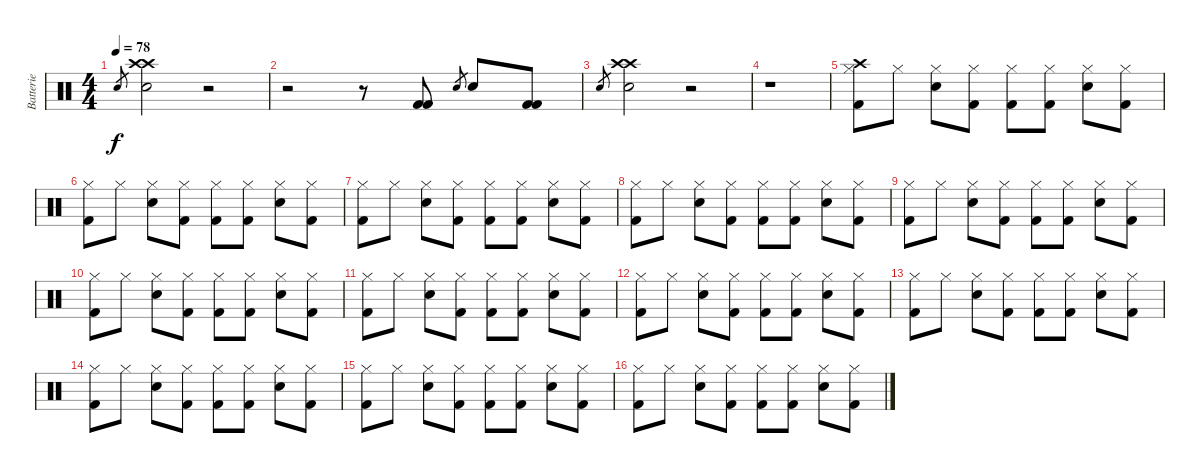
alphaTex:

\track ("Batterie" "Batterie") {instrument percussion}
\staff {score}
\articulation defaults
\ts (4 4)
\tempo 78
\clef neutral
\ks c "Electric Snare (hit)".8{gr dy f}
("Crash high (hit)" "Crash high (hit)" "Electric Snare (hit)").2 r.2 |
r.2 r.8 ("Kick (hit) 2" "Kick (hit) 2").8 "Electric Snare (hit)".8{gr} "Electric Snare (hit)".8 ("Kick (hit) 2" "Kick (hit) 2").8 |
"Electric Snare (hit)".8{gr} ("Crash high (hit)" "Crash high (hit)" "Electric Snare (hit)").2 r.2 |
r.1 |
("Hi-Hat (closed)" "Crash high (hit)" "Kick (hit) 2").8 "Hi-Hat (closed)".8 ("Hi-Hat (closed)" "Electric Snare (hit)").8 ("Hi-Hat (closed)" "Kick (hit) 2").8 ("Hi-Hat (closed)" "Kick (hit) 2").8 ("Hi-Hat (closed)" "Kick (hit) 2").8 ("Hi-Hat (closed)" "Electric Snare (hit)").8 ("Hi-Hat (closed)" "Kick (hit) 2").8 |
("Hi-Hat (closed)" "Kick (hit) 2").8 "Hi-Hat (closed)".8 ("Hi-Hat (closed)" "Electric Snare (hit)").8 ("Hi-Hat (closed)" "Kick (hit) 2").8 ("Hi-Hat (closed)" "Kick (hit) 2").8 ("Hi-Hat (closed)" "Kick (hit) 2").8 ("Hi-Hat (closed)" "Electric Snare (hit)").8 ("Hi-Hat (closed)" "Kick (hit) 2").8 |
("Hi-Hat (closed)" "Kick (hit) 2").8 "Hi-Hat (closed)".8 ("Hi-Hat (closed)" "Electric Snare (hit)").8 ("Hi-Hat (closed)" "Kick (hit) 2").8 ("Hi-Hat (closed)" "Kick (hit) 2").8 ("Hi-Hat (closed)" "Kick (hit) 2").8 ("Hi-Hat (closed)" "Electric Snare (hit)").8 ("Hi-Hat (closed)" "Kick (hit) 2").8 |
("Hi-Hat (closed)" "Kick (hit) 2").8 "Hi-Hat (closed)".8 ("Hi-Hat (closed)" "Electric Snare (hit)").8 ("Hi-Hat (closed)" "Kick (hit) 2").8 ("Hi-Hat (closed)" "Kick (hit) 2").8 ("Hi-Hat (closed)" "Kick (hit) 2").8 ("Hi-Hat (closed)" "Electric Snare (hit)").8 ("Hi-Hat (closed)" "Kick (hit) 2").8 |
("Hi-Hat (closed)" "Kick (hit) 2").8 "Hi-Hat (closed)".8 ("Hi-Hat (closed)" "Electric Snare (hit)").8 ("Hi-Hat (closed)" "Kick (hit) 2").8 ("Hi-Hat (closed)" "Kick (hit) 2").8 ("Hi-Hat (closed)" "Kick (hit) 2").8 ("Hi-Hat (closed)" "Electric Snare (hit)").8 ("Hi-Hat (closed)" "Kick (hit) 2").8 |
("Hi-Hat (closed)" "Kick (hit) 2").8 "Hi-Hat (closed)".8 ("Hi-Hat (closed)" "Electric Snare (hit)").8 ("Hi-Hat (closed)" "Kick (hit) 2").8 ("Hi-Hat (closed)" "Kick (hit) 2").8 ("Hi-Hat (closed)" "Kick (hit) 2").8 ("Hi-Hat (closed)" "Electric Snare (hit)").8 ("Hi-Hat (closed)" "Kick (hit) 2").8 |
("Hi-Hat (closed)" "Kick (hit) 2").8 "Hi-Hat (closed)".8 ("Hi-Hat (closed)" "Electric Snare (hit)").8 ("Hi-Hat (closed)" "Kick (hit) 2").8 ("Hi-Hat (closed)" "Kick (hit) 2").8 ("Hi-Hat (closed)" "Kick (hit) 2").8 ("Hi-Hat (closed)" "Electric Snare (hit)").8 ("Hi-Hat (closed)" "Kick (hit) 2").8 |
("Hi-Hat (closed)" "Kick (hit) 2").8 "Hi-Hat (closed)".8 ("Hi-Hat (closed)" "Electric Snare (hit)").8 ("Hi-Hat (closed)" "Kick (hit) 2").8 ("Hi-Hat (closed)" "Kick (hit) 2").8 ("Hi-Hat (closed)" "Kick (hit) 2").8 ("Hi-Hat (closed)" "Electric Snare (hit)").8 ("Hi-Hat (closed)" "Kick (hit) 2").8 |
("Hi-Hat (closed)" "Kick (hit) 2").8 "Hi-Hat (closed)".8 ("Hi-Hat (closed)" "Electric Snare (hit)").8 ("Hi-Hat (closed)" "Kick (hit) 2").8 ("Hi-Hat (closed)" "Kick (hit) 2").8 ("Hi-Hat (closed)" "Kick (hit) 2").8 ("Hi-Hat (closed)" "Electric Snare (hit)").8 ("Hi-Hat (closed)" "Kick (hit) 2").8 |
("Hi-Hat (closed)" "Kick (hit) 2").8 "Hi-Hat (closed)".8 ("Hi-Hat (closed)" "Electric Snare (hit)").8 ("Hi-Hat (closed)" "Kick (hit) 2").8 ("Hi-Hat (closed)" "Kick (hit) 2").8 ("Hi-Hat (closed)" "Kick (hit) 2").8 ("Hi-Hat (closed)" "Electric Snare (hit)").8 ("Hi-Hat (closed)" "Kick (hit) 2").8 |
("Hi-Hat (closed)" "Kick (hit) 2").8 "Hi-Hat (closed)".8 ("Hi-Hat (closed)" "Electric Snare (hit)").8 ("Hi-Hat (closed)" "Kick (hit) 2").8 ("Hi-Hat (closed)" "Kick (hit) 2").8 ("Hi-Hat (closed)" "Kick (hit) 2").8 ("Hi-Hat (closed)" "Electric Snare (hit)").8 ("Hi-Hat (closed)" "Kick (hit) 2").8 |
("Hi-Hat (closed)" "Kick (hit) 2").8 "Hi-Hat (closed)".8 ("Hi-Hat (closed)" "Electric Snare (hit)").8 ("Hi-Hat (closed)" "Kick (hit) 2").8 ("Hi-Hat (closed)" "Kick (hit) 2").8 ("Hi-Hat (closed)" "Kick (hit) 2").8 ("Hi-Hat (closed)" "Electric Snare (hit)").8 ("Hi-Hat (closed)" "Kick (hit) 2").8
